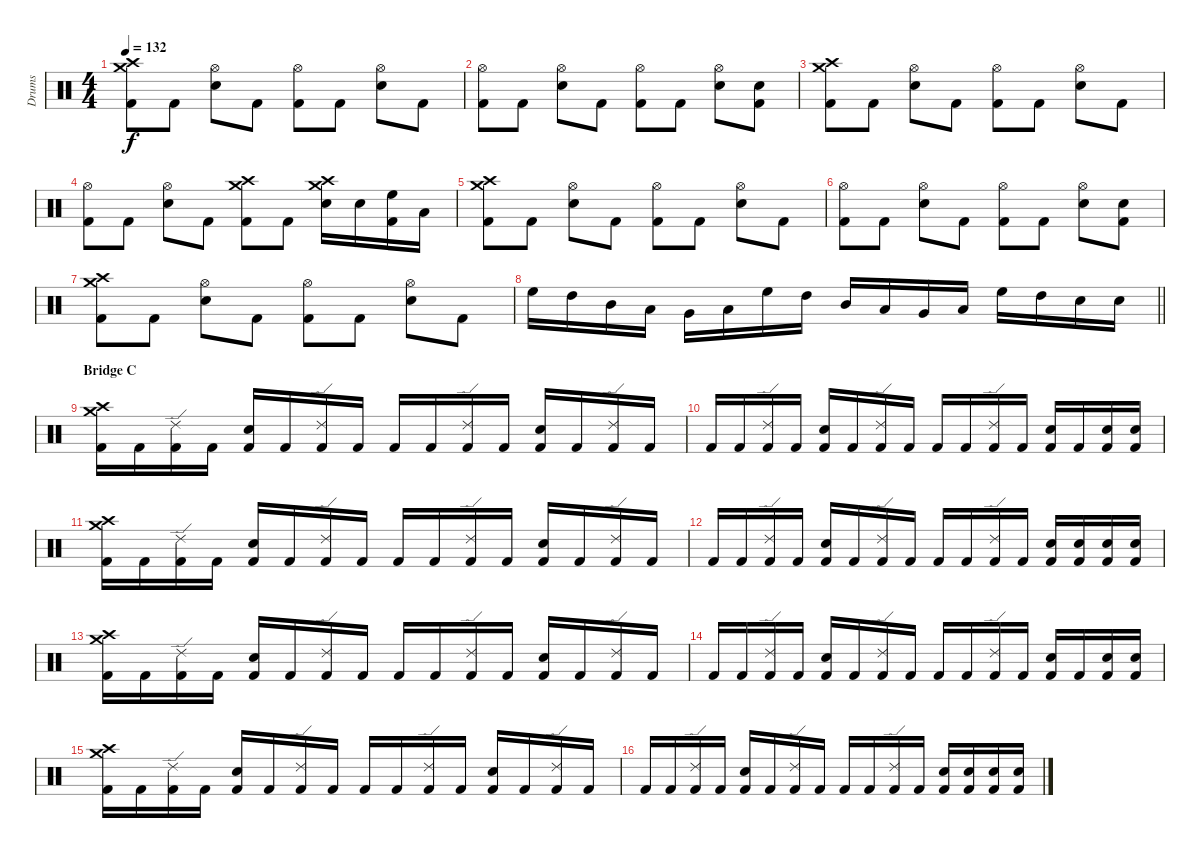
\track ("Drums" "Drums") {instrument percussion}
\staff {score}
\articulation defaults
\ts (4 4)
\tempo 132
\clef neutral
\ks c
("Crash medium (hit)" "Crash high (hit)" "Kick (hit) 2").8{dy f} "Kick (hit) 2".8 ("Hi-Hat (open)" "Electric Snare (hit)").8 "Kick (hit) 2".8 ("Hi-Hat (open)" "Kick (hit) 2").8 "Kick (hit) 2".8 ("Hi-Hat (open)" "Electric Snare (hit)").8 "Kick (hit) 2".8 |
("Hi-Hat (open)" "Kick (hit) 2").8 "Kick (hit) 2".8 ("Hi-Hat (open)" "Electric Snare (hit)").8 "Kick (hit) 2".8 ("Hi-Hat (open)" "Kick (hit) 2").8 "Kick (hit) 2".8 ("Hi-Hat (open)" "Electric Snare (hit)").8 ("Electric Snare (hit)" "Kick (hit) 2").8 |
("Crash medium (hit)" "Crash high (hit)" "Kick (hit) 2").8 "Kick (hit) 2".8 ("Hi-Hat (open)" "Electric Snare (hit)").8 "Kick (hit) 2".8 ("Hi-Hat (open)" "Kick (hit) 2").8 "Kick (hit) 2".8 ("Hi-Hat (open)" "Electric Snare (hit)").8 "Kick (hit) 2".8 |
("Hi-Hat (open)" "Kick (hit) 2").8 "Kick (hit) 2".8 ("Hi-Hat (open)" "Electric Snare (hit)").8 "Kick (hit) 2".8 ("Crash medium (hit)" "Crash high (hit)" "Kick (hit) 2").8 "Kick (hit) 2".8 ("Crash medium (hit)" "Crash high (hit)" "Electric Snare (hit)").16 "Electric Snare (hit)".16 ("High Floor Tom (hit)" "Kick (hit) 2").16 "Low Tom (hit)".16 |
("Crash medium (hit)" "Crash high (hit)" "Kick (hit) 2").8 "Kick (hit) 2".8 ("Hi-Hat (open)" "Electric Snare (hit)").8 "Kick (hit) 2".8 ("Hi-Hat (open)" "Kick (hit) 2").8 "Kick (hit) 2".8 ("Hi-Hat (open)" "Electric Snare (hit)").8 "Kick (hit) 2".8 |
("Hi-Hat (open)" "Kick (hit) 2").8 "Kick (hit) 2".8 ("Hi-Hat (open)" "Electric Snare (hit)").8 "Kick (hit) 2".8 ("Hi-Hat (open)" "Kick (hit) 2").8 "Kick (hit) 2".8 ("Hi-Hat (open)" "Electric Snare (hit)").8 ("Electric Snare (hit)" "Kick (hit) 2").8 |
("Crash medium (hit)" "Crash high (hit)" "Kick (hit) 2").8 "Kick (hit) 2".8 ("Hi-Hat (open)" "Electric Snare (hit)").8 "Kick (hit) 2".8 ("Hi-Hat (open)" "Kick (hit) 2").8 "Kick (hit) 2".8 ("Hi-Hat (open)" "Electric Snare (hit)").8 "Kick (hit) 2".8 |
\barLineRight lightlight "High Floor Tom (hit)".16 "High Tom (hit)".16 "Mid Tom (hit)".16 "Low Tom (hit)".16 "Very Low Tom (hit)".16 "Low Floor Tom (hit)".16 "High Floor Tom (hit)".16 "High Tom (hit)".16 "Mid Tom (hit)".16 "Low Tom (hit)".16 "Very Low Tom (hit)".16 "Low Floor Tom (hit)".16 "High Floor Tom (hit)".16 "High Tom (hit)".16 "Electric Snare (hit)".16 "Electric Snare (hit)".16
|
\section ("" "Bridge C")
("Crash medium (hit)" "Crash high (hit)" "Kick (hit) 2").16 "Kick (hit) 2".16 ("Ride (edge) 2" "Kick (hit) 2").16 "Kick (hit) 2".16 ("Electric Snare (hit)" "Kick (hit) 2").16 "Kick (hit) 2".16 ("Ride (edge) 2" "Kick (hit) 2").16 "Kick (hit) 2".16 "Kick (hit) 2".16 "Kick (hit) 2".16 ("Ride (edge) 2" "Kick (hit) 2").16 "Kick (hit) 2".16 ("Electric Snare (hit)" "Kick (hit) 2").16 "Kick (hit) 2".16 ("Ride (edge) 2" "Kick (hit) 2").16 "Kick (hit) 2".16 |
"Kick (hit) 2".16 "Kick (hit) 2".16 ("Ride (edge) 2" "Kick (hit) 2").16 "Kick (hit) 2".16 ("Electric Snare (hit)" "Kick (hit) 2").16 "Kick (hit) 2".16 ("Ride (edge) 2" "Kick (hit) 2").16 "Kick (hit) 2".16 "Kick (hit) 2".16 "Kick (hit) 2".16 ("Ride (edge) 2" "Kick (hit) 2").16 "Kick (hit) 2".16 ("Electric Snare (hit)" "Kick (hit) 2").16 "Kick (hit) 2".16 ("Electric Snare (hit)" "Kick (hit) 2").16 ("Electric Snare (hit)" "Kick (hit) 2").16 |
("Crash medium (hit)" "Crash high (hit)" "Kick (hit) 2").16 "Kick (hit) 2".16 ("Ride (edge) 2" "Kick (hit) 2").16 "Kick (hit) 2".16 ("Electric Snare (hit)" "Kick (hit) 2").16 "Kick (hit) 2".16 ("Ride (edge) 2" "Kick (hit) 2").16 "Kick (hit) 2".16 "Kick (hit) 2".16 "Kick (hit) 2".16 ("Ride (edge) 2" "Kick (hit) 2").16 "Kick (hit) 2".16 ("Electric Snare (hit)" "Kick (hit) 2").16 "Kick (hit) 2".16 ("Ride (edge) 2" "Kick (hit) 2").16 "Kick (hit) 2".16 |
"Kick (hit) 2".16 "Kick (hit) 2".16 ("Ride (edge) 2" "Kick (hit) 2").16 "Kick (hit) 2".16 ("Electric Snare (hit)" "Kick (hit) 2").16 "Kick (hit) 2".16 ("Ride (edge) 2" "Kick (hit) 2").16 "Kick (hit) 2".16 "Kick (hit) 2".16 "Kick (hit) 2".16 ("Ride (edge) 2" "Kick (hit) 2").16 "Kick (hit) 2".16 ("Electric Snare (hit)" "Kick (hit) 2").16 ("Electric Snare (hit)" "Kick (hit) 2").16 ("Electric Snare (hit)" "Kick (hit) 2").16 ("Electric Snare (hit)" "Kick (hit) 2").16 |
("Crash medium (hit)" "Crash high (hit)" "Kick (hit) 2").16 "Kick (hit) 2".16 ("Ride (edge) 2" "Kick (hit) 2").16 "Kick (hit) 2".16 ("Electric Snare (hit)" "Kick (hit) 2").16 "Kick (hit) 2".16 ("Ride (edge) 2" "Kick (hit) 2").16 "Kick (hit) 2".16 "Kick (hit) 2".16 "Kick (hit) 2".16 ("Ride (edge) 2" "Kick (hit) 2").16 "Kick (hit) 2".16 ("Electric Snare (hit)" "Kick (hit) 2").16 "Kick (hit) 2".16 ("Ride (edge) 2" "Kick (hit) 2").16 "Kick (hit) 2".16 |
"Kick (hit) 2".16 "Kick (hit) 2".16 ("Ride (edge) 2" "Kick (hit) 2").16 "Kick (hit) 2".16 ("Electric Snare (hit)" "Kick (hit) 2").16 "Kick (hit) 2".16 ("Ride (edge) 2" "Kick (hit) 2").16 "Kick (hit) 2".16 "Kick (hit) 2".16 "Kick (hit) 2".16 ("Ride (edge) 2" "Kick (hit) 2").16 "Kick (hit) 2".16 ("Electric Snare (hit)" "Kick (hit) 2").16 "Kick (hit) 2".16 ("Electric Snare (hit)" "Kick (hit) 2").16 ("Electric Snare (hit)" "Kick (hit) 2").16 |
("Crash medium (hit)" "Crash high (hit)" "Kick (hit) 2").16 "Kick (hit) 2".16 ("Ride (edge) 2" "Kick (hit) 2").16 "Kick (hit) 2".16 ("Electric Snare (hit)" "Kick (hit) 2").16 "Kick (hit) 2".16 ("Ride (edge) 2" "Kick (hit) 2").16 "Kick (hit) 2".16 "Kick (hit) 2".16 "Kick (hit) 2".16 ("Ride (edge) 2" "Kick (hit) 2").16 "Kick (hit) 2".16 ("Electric Snare (hit)" "Kick (hit) 2").16 "Kick (hit) 2".16 ("Ride (edge) 2" "Kick (hit) 2").16 "Kick (hit) 2".16 |
"Kick (hit) 2".16 "Kick (hit) 2".16 ("Ride (edge) 2" "Kick (hit) 2").16 "Kick (hit) 2".16 ("Electric Snare (hit)" "Kick (hit) 2").16 "Kick (hit) 2".16 ("Ride (edge) 2" "Kick (hit) 2").16 "Kick (hit) 2".16 "Kick (hit) 2".16 "Kick (hit) 2".16 ("Ride (edge) 2" "Kick (hit) 2").16 "Kick (hit) 2".16 ("Electric Snare (hit)" "Kick (hit) 2").16 ("Electric Snare (hit)" "Kick (hit) 2").16 ("Electric Snare (hit)" "Kick (hit) 2").16 ("Electric Snare (hit)" "Kick (hit) 2").16
